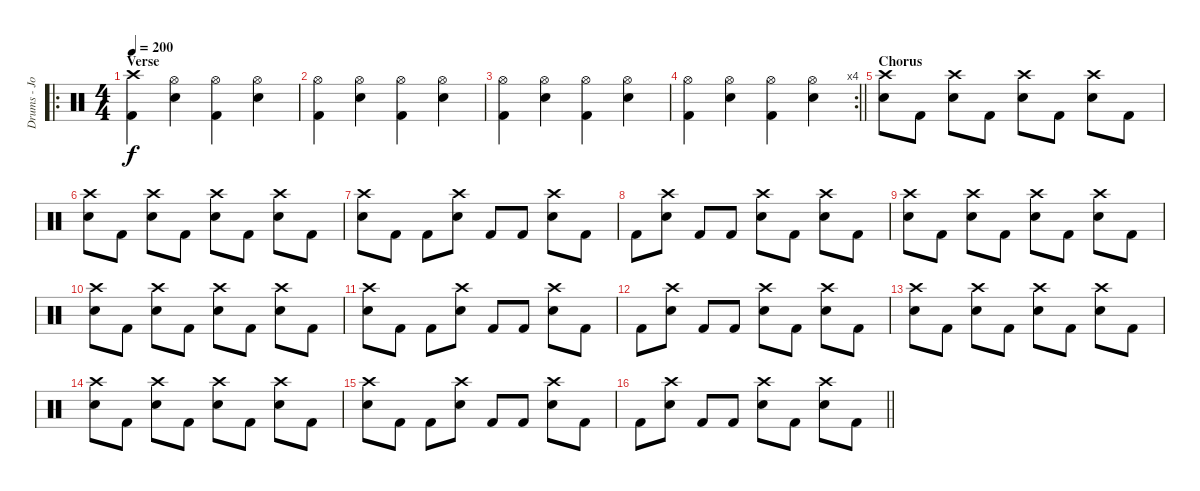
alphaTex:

\track ("Drums - John" "Drums - Jo") {instrument percussion}
\staff {score}
\articulation defaults
\ro
\ts (4 4)
\section ("" "Verse")
\tempo 200
\clef neutral
\ks c
("Crash high (hit)" "Kick (hit) 2").4{dy f} ("Electric Snare (hit)" "Hi-Hat (open)").4 ("Kick (hit) 2" "Hi-Hat (open)").4 ("Electric Snare (hit)" "Hi-Hat (open)").4 |
("Kick (hit) 2" "Hi-Hat (open)").4 ("Electric Snare (hit)" "Hi-Hat (open)").4 ("Kick (hit) 2" "Hi-Hat (open)").4 ("Electric Snare (hit)" "Hi-Hat (open)").4 |
("Kick (hit) 2" "Hi-Hat (open)").4 ("Electric Snare (hit)" "Hi-Hat (open)").4 ("Kick (hit) 2" "Hi-Hat (open)").4 ("Electric Snare (hit)" "Hi-Hat (open)").4 |
\rc 4
\barLineRight lightlight
("Kick (hit) 2" "Hi-Hat (open)").4 ("Electric Snare (hit)" "Hi-Hat (open)").4 ("Kick (hit) 2" "Hi-Hat (open)").4 ("Electric Snare (hit)" "Hi-Hat (open)").4 |
\section ("" "Chorus")
("Crash high (hit)" "Electric Snare (hit)").8 "Kick (hit) 2".8 ("Crash high (hit)" "Electric Snare (hit)").8 "Kick (hit) 2".8 ("Crash high (hit)" "Electric Snare (hit)").8 "Kick (hit) 2".8 ("Crash high (hit)" "Electric Snare (hit)").8 "Kick (hit) 2".8 |
("Crash high (hit)" "Electric Snare (hit)").8 "Kick (hit) 2".8 ("Crash high (hit)" "Electric Snare (hit)").8 "Kick (hit) 2".8 ("Crash high (hit)" "Electric Snare (hit)").8 "Kick (hit) 2".8 ("Crash high (hit)" "Electric Snare (hit)").8 "Kick (hit) 2".8 |
("Crash high (hit)" "Electric Snare (hit)").8 "Kick (hit) 2".8 "Kick (hit) 2".8 ("Crash high (hit)" "Electric Snare (hit)").8 "Kick (hit) 2".8 "Kick (hit) 2".8 ("Crash high (hit)" "Electric Snare (hit)").8 "Kick (hit) 2".8 |
"Kick (hit) 2".8 ("Crash high (hit)" "Electric Snare (hit)").8 "Kick (hit) 2".8 "Kick (hit) 2".8 ("Crash high (hit)" "Electric Snare (hit)").8 "Kick (hit) 2".8 ("Crash high (hit)" "Electric Snare (hit)").8 "Kick (hit) 2".8 |
("Crash high (hit)" "Electric Snare (hit)").8 "Kick (hit) 2".8 ("Crash high (hit)" "Electric Snare (hit)").8 "Kick (hit) 2".8 ("Crash high (hit)" "Electric Snare (hit)").8 "Kick (hit) 2".8 ("Crash high (hit)" "Electric Snare (hit)").8 "Kick (hit) 2".8 |
("Crash high (hit)" "Electric Snare (hit)").8 "Kick (hit) 2".8 ("Crash high (hit)" "Electric Snare (hit)").8 "Kick (hit) 2".8 ("Crash high (hit)" "Electric Snare (hit)").8 "Kick (hit) 2".8 ("Crash high (hit)" "Electric Snare (hit)").8 "Kick (hit) 2".8 |
("Crash high (hit)" "Electric Snare (hit)").8 "Kick (hit) 2".8 "Kick (hit) 2".8 ("Crash high (hit)" "Electric Snare (hit)").8 "Kick (hit) 2".8 "Kick (hit) 2".8 ("Crash high (hit)" "Electric Snare (hit)").8 "Kick (hit) 2".8 |
"Kick (hit) 2".8 ("Crash high (hit)" "Electric Snare (hit)").8 "Kick (hit) 2".8 "Kick (hit) 2".8 ("Crash high (hit)" "Electric Snare (hit)").8 "Kick (hit) 2".8 ("Crash high (hit)" "Electric Snare (hit)").8 "Kick (hit) 2".8 |
("Crash high (hit)" "Electric Snare (hit)").8 "Kick (hit) 2".8 ("Crash high (hit)" "Electric Snare (hit)").8 "Kick (hit) 2".8 ("Crash high (hit)" "Electric Snare (hit)").8 "Kick (hit) 2".8 ("Crash high (hit)" "Electric Snare (hit)").8 "Kick (hit) 2".8 |
("Crash high (hit)" "Electric Snare (hit)").8 "Kick (hit) 2".8 ("Crash high (hit)" "Electric Snare (hit)").8 "Kick (hit) 2".8 ("Crash high (hit)" "Electric Snare (hit)").8 "Kick (hit) 2".8 ("Crash high (hit)" "Electric Snare (hit)").8 "Kick (hit) 2".8 |
("Crash high (hit)" "Electric Snare (hit)").8 "Kick (hit) 2".8 "Kick (hit) 2".8 ("Crash high (hit)" "Electric Snare (hit)").8 "Kick (hit) 2".8 "Kick (hit) 2".8 ("Crash high (hit)" "Electric Snare (hit)").8 "Kick (hit) 2".8 |
\barLineRight lightlight "Kick (hit) 2".8
("Crash high (hit)" "Electric Snare (hit)").8 "Kick (hit) 2".8 "Kick (hit) 2".8 ("Crash high (hit)" "Electric Snare (hit)").8 "Kick (hit) 2".8 ("Crash high (hit)" "Electric Snare (hit)").8 "Kick (hit) 2".8
